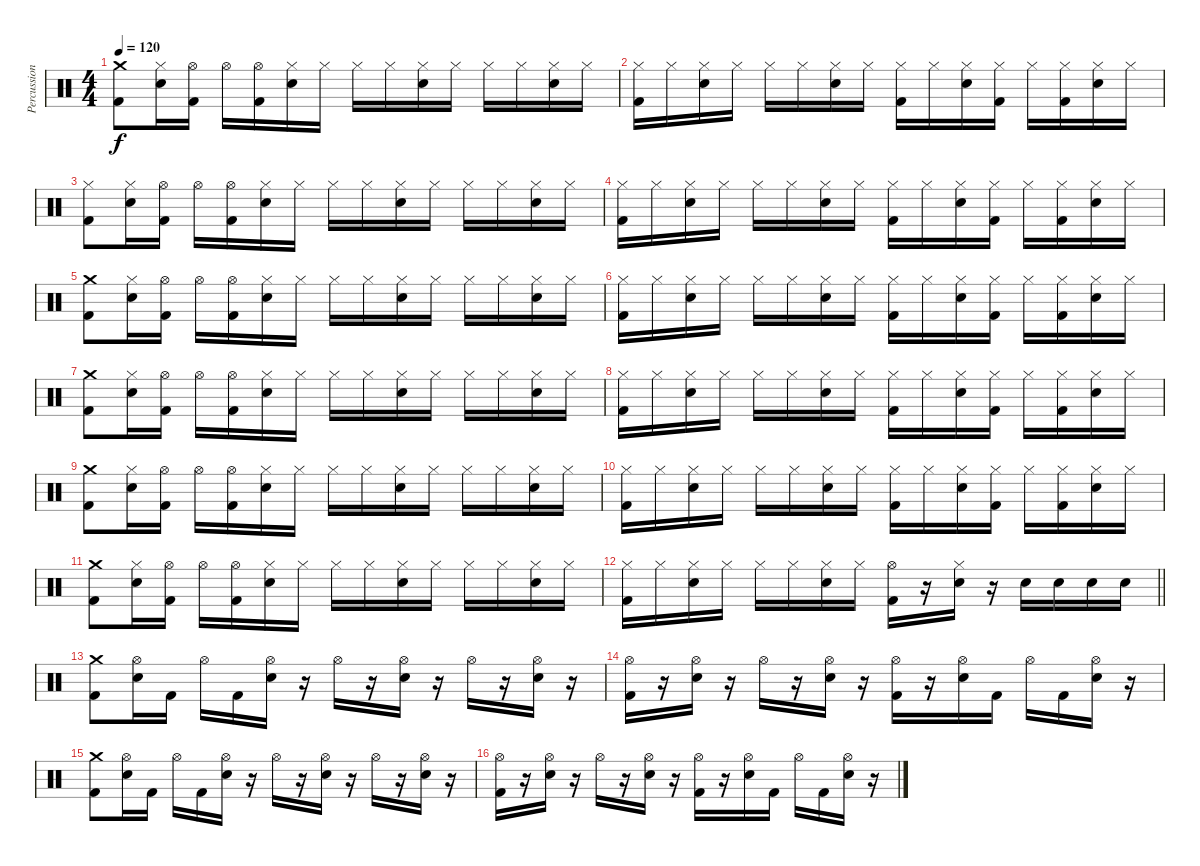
\track ("Percussion" "Percussion") {instrument percussion}
\staff {score}
\articulation defaults
\ts (4 4)
\tempo 120
\clef neutral
\ks c
("Crash medium (hit)" "Kick (hit) 2").8{dy f} ("Hi-Hat (closed)" "Electric Snare (hit)").16 ("Hi-Hat (open)" "Kick (hit) 2").16 "Hi-Hat (open)".16 ("Hi-Hat (open)" "Kick (hit) 2").16 ("Hi-Hat (closed)" "Electric Snare (hit)").16 "Hi-Hat (closed)".16 "Hi-Hat (closed)".16 "Hi-Hat (closed)".16 ("Hi-Hat (closed)" "Electric Snare (hit)").16 "Hi-Hat (closed)".16 "Hi-Hat (closed)".16 "Hi-Hat (closed)".16 ("Hi-Hat (closed)" "Electric Snare (hit)").16 "Hi-Hat (closed)".16 |
("Hi-Hat (closed)" "Kick (hit) 2").16 "Hi-Hat (closed)".16 ("Hi-Hat (closed)" "Electric Snare (hit)").16 "Hi-Hat (closed)".16 "Hi-Hat (closed)".16 "Hi-Hat (closed)".16 ("Hi-Hat (closed)" "Electric Snare (hit)").16 "Hi-Hat (closed)".16 ("Hi-Hat (closed)" "Kick (hit) 2").16 "Hi-Hat (closed)".16 ("Hi-Hat (closed)" "Electric Snare (hit)").16 ("Hi-Hat (closed)" "Kick (hit) 2").16 "Hi-Hat (closed)".16 ("Hi-Hat (closed)" "Kick (hit) 2").16 ("Hi-Hat (closed)" "Electric Snare (hit)").16 "Hi-Hat (closed)".16 |
("Hi-Hat (closed)" "Kick (hit) 2").8 ("Hi-Hat (closed)" "Electric Snare (hit)").16 ("Hi-Hat (open)" "Kick (hit) 2").16 "Hi-Hat (open)".16 ("Hi-Hat (open)" "Kick (hit) 2").16 ("Hi-Hat (closed)" "Electric Snare (hit)").16 "Hi-Hat (closed)".16 "Hi-Hat (closed)".16 "Hi-Hat (closed)".16 ("Hi-Hat (closed)" "Electric Snare (hit)").16 "Hi-Hat (closed)".16 "Hi-Hat (closed)".16 "Hi-Hat (closed)".16 ("Hi-Hat (closed)" "Electric Snare (hit)").16 "Hi-Hat (closed)".16 |
("Hi-Hat (closed)" "Kick (hit) 2").16 "Hi-Hat (closed)".16 ("Hi-Hat (closed)" "Electric Snare (hit)").16 "Hi-Hat (closed)".16 "Hi-Hat (closed)".16 "Hi-Hat (closed)".16 ("Hi-Hat (closed)" "Electric Snare (hit)").16 "Hi-Hat (closed)".16 ("Hi-Hat (closed)" "Kick (hit) 2").16 "Hi-Hat (closed)".16 ("Hi-Hat (closed)" "Electric Snare (hit)").16 ("Hi-Hat (closed)" "Kick (hit) 2").16 "Hi-Hat (closed)".16 ("Hi-Hat (closed)" "Kick (hit) 2").16 ("Hi-Hat (closed)" "Electric Snare (hit)").16 "Hi-Hat (closed)".16 |
("Crash medium (hit)" "Kick (hit) 2").8 ("Hi-Hat (closed)" "Electric Snare (hit)").16 ("Hi-Hat (open)" "Kick (hit) 2").16 "Hi-Hat (open)".16 ("Hi-Hat (open)" "Kick (hit) 2").16 ("Hi-Hat (closed)" "Electric Snare (hit)").16 "Hi-Hat (closed)".16 "Hi-Hat (closed)".16 "Hi-Hat (closed)".16 ("Hi-Hat (closed)" "Electric Snare (hit)").16 "Hi-Hat (closed)".16 "Hi-Hat (closed)".16 "Hi-Hat (closed)".16 ("Hi-Hat (closed)" "Electric Snare (hit)").16 "Hi-Hat (closed)".16 |
("Hi-Hat (closed)" "Kick (hit) 2").16 "Hi-Hat (closed)".16 ("Hi-Hat (closed)" "Electric Snare (hit)").16 "Hi-Hat (closed)".16 "Hi-Hat (closed)".16 "Hi-Hat (closed)".16 ("Hi-Hat (closed)" "Electric Snare (hit)").16 "Hi-Hat (closed)".16 ("Hi-Hat (closed)" "Kick (hit) 2").16 "Hi-Hat (closed)".16 ("Hi-Hat (closed)" "Electric Snare (hit)").16 ("Hi-Hat (closed)" "Kick (hit) 2").16 "Hi-Hat (closed)".16 ("Hi-Hat (closed)" "Kick (hit) 2").16 ("Hi-Hat (closed)" "Electric Snare (hit)").16 "Hi-Hat (closed)".16 |
("Crash medium (hit)" "Kick (hit) 2").8 ("Hi-Hat (closed)" "Electric Snare (hit)").16 ("Hi-Hat (open)" "Kick (hit) 2").16 "Hi-Hat (open)".16 ("Hi-Hat (open)" "Kick (hit) 2").16 ("Hi-Hat (closed)" "Electric Snare (hit)").16 "Hi-Hat (closed)".16 "Hi-Hat (closed)".16 "Hi-Hat (closed)".16 ("Hi-Hat (closed)" "Electric Snare (hit)").16 "Hi-Hat (closed)".16 "Hi-Hat (closed)".16 "Hi-Hat (closed)".16 ("Hi-Hat (closed)" "Electric Snare (hit)").16 "Hi-Hat (closed)".16 |
("Hi-Hat (closed)" "Kick (hit) 2").16 "Hi-Hat (closed)".16 ("Hi-Hat (closed)" "Electric Snare (hit)").16 "Hi-Hat (closed)".16 "Hi-Hat (closed)".16 "Hi-Hat (closed)".16 ("Hi-Hat (closed)" "Electric Snare (hit)").16 "Hi-Hat (closed)".16 ("Hi-Hat (closed)" "Kick (hit) 2").16 "Hi-Hat (closed)".16 ("Hi-Hat (closed)" "Electric Snare (hit)").16 ("Hi-Hat (closed)" "Kick (hit) 2").16 "Hi-Hat (closed)".16 ("Hi-Hat (closed)" "Kick (hit) 2").16 ("Hi-Hat (closed)" "Electric Snare (hit)").16 "Hi-Hat (closed)".16 |
("Crash medium (hit)" "Kick (hit) 2").8 ("Hi-Hat (closed)" "Electric Snare (hit)").16 ("Hi-Hat (open)" "Kick (hit) 2").16 "Hi-Hat (open)".16 ("Hi-Hat (open)" "Kick (hit) 2").16 ("Hi-Hat (closed)" "Electric Snare (hit)").16 "Hi-Hat (closed)".16 "Hi-Hat (closed)".16 "Hi-Hat (closed)".16 ("Hi-Hat (closed)" "Electric Snare (hit)").16 "Hi-Hat (closed)".16 "Hi-Hat (closed)".16 "Hi-Hat (closed)".16 ("Hi-Hat (closed)" "Electric Snare (hit)").16 "Hi-Hat (closed)".16 |
("Hi-Hat (closed)" "Kick (hit) 2").16 "Hi-Hat (closed)".16 ("Hi-Hat (closed)" "Electric Snare (hit)").16 "Hi-Hat (closed)".16 "Hi-Hat (closed)".16 "Hi-Hat (closed)".16 ("Hi-Hat (closed)" "Electric Snare (hit)").16 "Hi-Hat (closed)".16 ("Hi-Hat (closed)" "Kick (hit) 2").16 "Hi-Hat (closed)".16 ("Hi-Hat (closed)" "Electric Snare (hit)").16 ("Hi-Hat (closed)" "Kick (hit) 2").16 "Hi-Hat (closed)".16 ("Hi-Hat (closed)" "Kick (hit) 2").16 ("Hi-Hat (closed)" "Electric Snare (hit)").16 "Hi-Hat (closed)".16 |
("Crash medium (hit)" "Kick (hit) 2").8 ("Hi-Hat (closed)" "Electric Snare (hit)").16 ("Hi-Hat (open)" "Kick (hit) 2").16 "Hi-Hat (open)".16 ("Hi-Hat (open)" "Kick (hit) 2").16 ("Hi-Hat (closed)" "Electric Snare (hit)").16 "Hi-Hat (closed)".16 "Hi-Hat (closed)".16 "Hi-Hat (closed)".16 ("Hi-Hat (closed)" "Electric Snare (hit)").16 "Hi-Hat (closed)".16 "Hi-Hat (closed)".16 "Hi-Hat (closed)".16 ("Hi-Hat (closed)" "Electric Snare (hit)").16 "Hi-Hat (closed)".16 |
\barLineRight lightlight
("Hi-Hat (closed)" "Kick (hit) 2").16 "Hi-Hat (closed)".16 ("Hi-Hat (closed)" "Electric Snare (hit)").16 "Hi-Hat (closed)".16 "Hi-Hat (closed)".16 "Hi-Hat (closed)".16 ("Hi-Hat (closed)" "Electric Snare (hit)").16 "Hi-Hat (closed)".16 ("Hi-Hat (open)" "Kick (hit) 2").16 r.16 ("Hi-Hat (closed)" "Electric Snare (hit)").16 r.16 "Electric Snare (hit)".16 "Electric Snare (hit)".16 "Electric Snare (hit)".16 "Electric Snare (hit)".16 |
("Crash medium (hit)" "Kick (hit) 2").8 ("Hi-Hat (open)" "Electric Snare (hit)").16 "Kick (hit) 2".16 "Hi-Hat (open)".16 "Kick (hit) 2".16 ("Hi-Hat (open)" "Electric Snare (hit)").16 r.16 "Hi-Hat (open)".16 r.16 ("Hi-Hat (open)" "Electric Snare (hit)").16 r.16 "Hi-Hat (open)".16 r.16 ("Hi-Hat (open)" "Electric Snare (hit)").16 r.16 |
("Hi-Hat (open)" "Kick (hit) 2").16 r.16 ("Hi-Hat (open)" "Electric Snare (hit)").16 r.16 "Hi-Hat (open)".16 r.16 ("Hi-Hat (open)" "Electric Snare (hit)").16 r.16 ("Hi-Hat (open)" "Kick (hit) 2").16 r.16 ("Hi-Hat (open)" "Electric Snare (hit)").16 "Kick (hit) 2".16 "Hi-Hat (open)".16 "Kick (hit) 2".16 ("Hi-Hat (open)" "Electric Snare (hit)").16 r.16 |
("Crash medium (hit)" "Kick (hit) 2").8 ("Hi-Hat (open)" "Electric Snare (hit)").16 "Kick (hit) 2".16 "Hi-Hat (open)".16 "Kick (hit) 2".16 ("Hi-Hat (open)" "Electric Snare (hit)").16 r.16 "Hi-Hat (open)".16 r.16 ("Hi-Hat (open)" "Electric Snare (hit)").16 r.16 "Hi-Hat (open)".16 r.16 ("Hi-Hat (open)" "Electric Snare (hit)").16 r.16 |
("Hi-Hat (open)" "Kick (hit) 2").16 r.16 ("Hi-Hat (open)" "Electric Snare (hit)").16 r.16 "Hi-Hat (open)".16 r.16 ("Hi-Hat (open)" "Electric Snare (hit)").16 r.16 ("Hi-Hat (open)" "Kick (hit) 2").16 r.16 ("Hi-Hat (open)" "Electric Snare (hit)").16 "Kick (hit) 2".16 "Hi-Hat (open)".16 "Kick (hit) 2".16 ("Hi-Hat (open)" "Electric Snare (hit)").16 r.16
